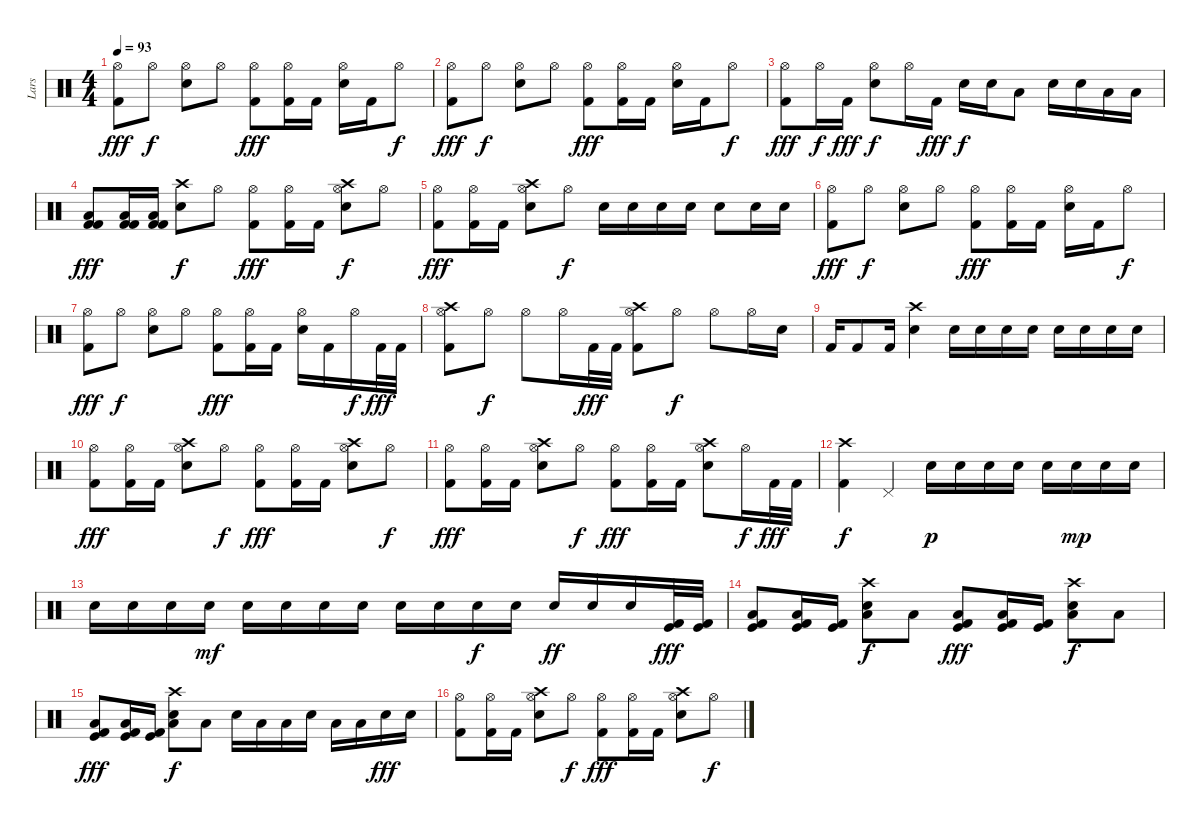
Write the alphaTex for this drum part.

\track ("Lars" "Lars") {instrument percussion}
\staff {score}
\articulation defaults
\ts (4 4)
\tempo 93
\clef neutral
\ks c
("Hi-Hat (open)" "Kick (hit) 2").8{dy fff} "Hi-Hat (open)".8{dy f} ("Hi-Hat (open)" "Snare (hit) 2").8 "Hi-Hat (open)".8 ("Hi-Hat (open)" "Kick (hit) 2").8{dy fff} ("Hi-Hat (open)" "Kick (hit) 2").16 "Kick (hit) 2".16 ("Hi-Hat (open)" "Snare (hit) 2").16 "Kick (hit) 2".16 "Hi-Hat (open)".8{dy f} |
("Hi-Hat (open)" "Kick (hit) 2").8{dy fff} "Hi-Hat (open)".8{dy f} ("Hi-Hat (open)" "Snare (hit) 2").8 "Hi-Hat (open)".8 ("Hi-Hat (open)" "Kick (hit) 2").8{dy fff} ("Hi-Hat (open)" "Kick (hit) 2").16 "Kick (hit) 2".16 ("Hi-Hat (open)" "Snare (hit) 2").16 "Kick (hit) 2".16 "Hi-Hat (open)".8{dy f} |
("Hi-Hat (open)" "Kick (hit) 2").8{dy fff} "Hi-Hat (open)".16{dy f} "Kick (hit) 2".16{dy fff} ("Hi-Hat (open)" "Snare (hit) 2").8{dy f} "Hi-Hat (open)".16 "Kick (hit) 2".16{dy fff} "Snare (hit) 2".16{dy f} "Snare (hit) 2".16 "Low Floor Tom (hit)".8 "Snare (hit) 2".16 "Snare (hit) 2".16 "Low Tom (hit)".16 "Low Floor Tom (hit)".16 |
("Low Floor Tom (hit)" "Kick (hit) 2" "Kick (hit) 2").8{dy fff} ("Low Floor Tom (hit)" "Kick (hit) 2" "Kick (hit) 2").16 ("Low Floor Tom (hit)" "Kick (hit) 2" "Kick (hit) 2").16 ("Crash high (hit)" "Snare (hit) 2").8{dy f} "Hi-Hat (open)".8 ("Hi-Hat (open)" "Kick (hit) 2").8{dy fff} ("Hi-Hat (open)" "Kick (hit) 2").16 "Kick (hit) 2".16 ("Crash high (hit)" "Hi-Hat (open)" "Snare (hit) 2").8{dy f} "Hi-Hat (open)".8 |
("Hi-Hat (open)" "Kick (hit) 2").8{dy fff} ("Hi-Hat (open)" "Kick (hit) 2").16 "Kick (hit) 2".16 ("Crash high (hit)" "Hi-Hat (open)" "Snare (hit) 2").8 "Hi-Hat (open)".8{dy f} "Snare (hit) 2".16 "Snare (hit) 2".16 "Snare (hit) 2".16 "Snare (hit) 2".16 "Snare (hit) 2".8 "Snare (hit) 2".16 "Snare (hit) 2".16 |
("Hi-Hat (open)" "Kick (hit) 2").8{dy fff} "Hi-Hat (open)".8{dy f} ("Hi-Hat (open)" "Snare (hit) 2").8 "Hi-Hat (open)".8 ("Hi-Hat (open)" "Kick (hit) 2").8{dy fff} ("Hi-Hat (open)" "Kick (hit) 2").16 "Kick (hit) 2".16 ("Hi-Hat (open)" "Snare (hit) 2").16 "Kick (hit) 2".16 "Hi-Hat (open)".8{dy f} |
("Hi-Hat (open)" "Kick (hit) 2").8{dy fff} "Hi-Hat (open)".8{dy f} ("Hi-Hat (open)" "Snare (hit) 2").8 "Hi-Hat (open)".8 ("Hi-Hat (open)" "Kick (hit) 2").8{dy fff} ("Hi-Hat (open)" "Kick (hit) 2").16 "Kick (hit) 2".16 ("Hi-Hat (open)" "Snare (hit) 2").16 "Kick (hit) 2".16 "Hi-Hat (open)".16{dy f} "Kick (hit) 2".32{dy fff} "Kick (hit) 2".32 |
("Crash high (hit)" "Hi-Hat (open)" "Kick (hit) 2").8 "Hi-Hat (open)".8{dy f} "Hi-Hat (open)".8 "Hi-Hat (open)".16 "Kick (hit) 2".32{dy fff} "Kick (hit) 2".32 ("Crash high (hit)" "Hi-Hat (open)" "Kick (hit) 2").8 "Hi-Hat (open)".8{dy f} "Hi-Hat (open)".8 "Hi-Hat (open)".16 "Electric Snare (hit)".16 |
"Kick (hit) 2".16 "Kick (hit) 2".8 "Kick (hit) 2".16 ("Crash high (hit)" "Electric Snare (hit)").4 "Snare (hit) 2".16 "Snare (hit) 2".16 "Snare (hit) 2".16 "Snare (hit) 2".16 "Snare (hit) 2".16 "Snare (hit) 2".16 "Snare (hit) 2".16 "Snare (hit) 2".16 |
("Hi-Hat (open)" "Kick (hit) 2").8{dy fff} ("Hi-Hat (open)" "Kick (hit) 2").16 "Kick (hit) 2".16 ("Crash high (hit)" "Hi-Hat (open)" "Snare (hit) 2").8 "Hi-Hat (open)".8{dy f} ("Hi-Hat (open)" "Kick (hit) 2").8{dy fff} ("Hi-Hat (open)" "Kick (hit) 2").16 "Kick (hit) 2".16 ("Crash high (hit)" "Hi-Hat (open)" "Snare (hit) 2").8 "Hi-Hat (open)".8{dy f} |
("Hi-Hat (open)" "Kick (hit) 2").8{dy fff} ("Hi-Hat (open)" "Kick (hit) 2").16 "Kick (hit) 2".16 ("Crash high (hit)" "Hi-Hat (open)" "Snare (hit) 2").8 "Hi-Hat (open)".8{dy f} ("Hi-Hat (open)" "Kick (hit) 2").8{dy fff} ("Hi-Hat (open)" "Kick (hit) 2").16 "Kick (hit) 2".16 ("Crash high (hit)" "Hi-Hat (open)" "Snare (hit) 2").8 "Hi-Hat (open)".16{dy f} "Kick (hit) 2".32{dy fff} "Kick (hit) 2".32 |
("Crash high (hit)" "Kick (hit) 2").4{dy f} "Pedal Hi-Hat (hit)".4 "Snare (hit) 2".16{dy p} "Snare (hit) 2".16 "Snare (hit) 2".16 "Snare (hit) 2".16 "Snare (hit) 2".16 "Snare (hit) 2".16{dy mp} "Snare (hit) 2".16 "Snare (hit) 2".16 |
"Snare (hit) 2".16 "Snare (hit) 2".16 "Snare (hit) 2".16 "Snare (hit) 2".16{dy mf} "Snare (hit) 2".16 "Snare (hit) 2".16 "Snare (hit) 2".16 "Snare (hit) 2".16 "Snare (hit) 2".16 "Snare (hit) 2".16 "Snare (hit) 2".16{dy f} "Snare (hit) 2".16 "Snare (hit) 2".16{dy ff} "Snare (hit) 2".16 "Snare (hit) 2".16 ("Kick (hit)" "Kick (hit) 2").32{dy fff} ("Kick (hit)" "Kick (hit) 2").32 |
("Low Floor Tom (hit)" "Kick (hit)" "Kick (hit) 2").8 ("Low Floor Tom (hit)" "Kick (hit)" "Kick (hit) 2").16 ("Kick (hit)" "Kick (hit) 2").16 ("Crash high (hit)" "Snare (hit) 2" "Low Floor Tom (hit)").8{dy f} "Low Floor Tom (hit)".8 ("Low Floor Tom (hit)" "Kick (hit)" "Kick (hit) 2").8{dy fff} ("Low Floor Tom (hit)" "Kick (hit)" "Kick (hit) 2").16 ("Kick (hit)" "Kick (hit) 2").16 ("Crash high (hit)" "Snare (hit) 2" "Low Floor Tom (hit)").8{dy f} "Low Floor Tom (hit)".8 |
("Low Floor Tom (hit)" "Kick (hit)" "Kick (hit) 2").8{dy fff} ("Low Floor Tom (hit)" "Kick (hit)" "Kick (hit) 2").16 ("Kick (hit)" "Kick (hit) 2").16 ("Crash high (hit)" "Snare (hit) 2" "Low Floor Tom (hit)").8{dy f} "Low Floor Tom (hit)".8 "Snare (hit) 2".16 "Low Tom (hit)".16 "Low Floor Tom (hit)".16 "Snare (hit) 2".16 "Low Tom (hit)".16 "Low Floor Tom (hit)".16 "Snare (hit) 2".16{dy fff} "Snare (hit) 2".16 |
("Hi-Hat (open)" "Kick (hit) 2").8 ("Hi-Hat (open)" "Kick (hit) 2").16 "Kick (hit) 2".16 ("Crash high (hit)" "Hi-Hat (open)" "Snare (hit) 2").8 "Hi-Hat (open)".8{dy f} ("Hi-Hat (open)" "Kick (hit) 2").8{dy fff} ("Hi-Hat (open)" "Kick (hit) 2").16 "Kick (hit) 2".16 ("Crash high (hit)" "Hi-Hat (open)" "Snare (hit) 2").8 "Hi-Hat (open)".8{dy f}
